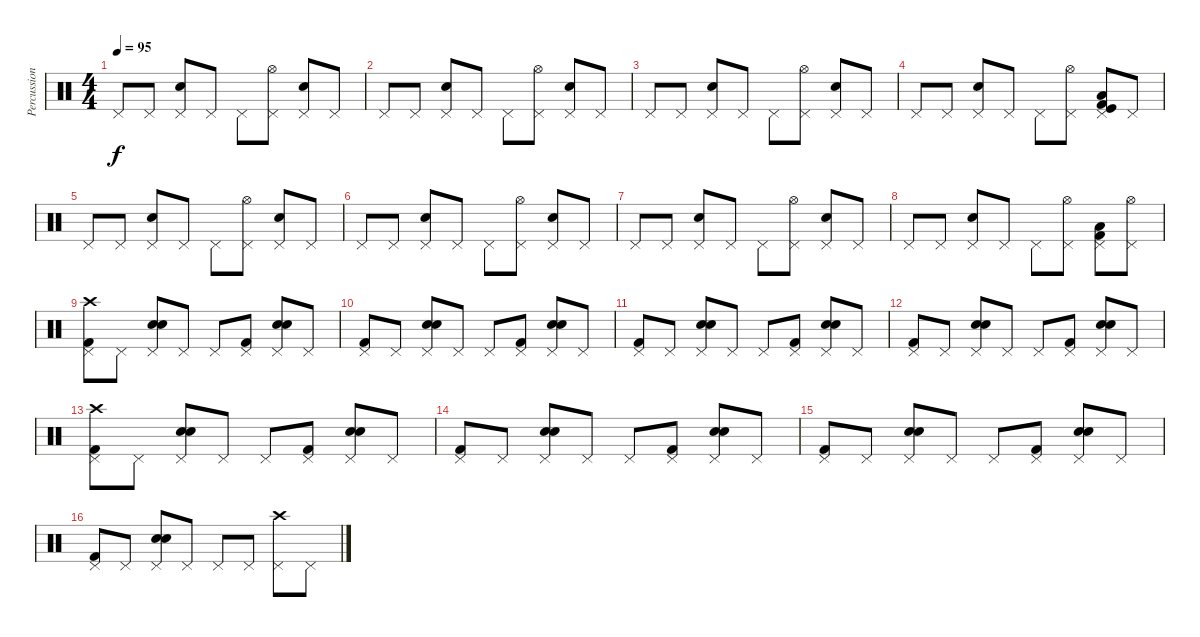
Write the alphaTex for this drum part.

\track ("Percussion (1)" "Percussion") {instrument percussion}
\staff {score}
\articulation defaults
\ts (4 4)
\tempo 95
\clef neutral
\ks c "Pedal Hi-Hat (hit)".8{dy f} "Pedal Hi-Hat (hit)".8
("Pedal Hi-Hat (hit)" "Electric Snare (hit)").8 "Pedal Hi-Hat (hit)".8 "Pedal Hi-Hat (hit)".8 ("Pedal Hi-Hat (hit)" "Hi-Hat (open)").8 ("Pedal Hi-Hat (hit)" "Electric Snare (hit)").8 "Pedal Hi-Hat (hit)".8 |
"Pedal Hi-Hat (hit)".8 "Pedal Hi-Hat (hit)".8 ("Pedal Hi-Hat (hit)" "Electric Snare (hit)").8 "Pedal Hi-Hat (hit)".8 "Pedal Hi-Hat (hit)".8 ("Pedal Hi-Hat (hit)" "Hi-Hat (open)").8 ("Pedal Hi-Hat (hit)" "Electric Snare (hit)").8 "Pedal Hi-Hat (hit)".8 |
"Pedal Hi-Hat (hit)".8 "Pedal Hi-Hat (hit)".8 ("Pedal Hi-Hat (hit)" "Electric Snare (hit)").8 "Pedal Hi-Hat (hit)".8 "Pedal Hi-Hat (hit)".8 ("Pedal Hi-Hat (hit)" "Hi-Hat (open)").8 ("Pedal Hi-Hat (hit)" "Electric Snare (hit)").8 "Pedal Hi-Hat (hit)".8 |
"Pedal Hi-Hat (hit)".8 "Pedal Hi-Hat (hit)".8 ("Pedal Hi-Hat (hit)" "Electric Snare (hit)").8 "Pedal Hi-Hat (hit)".8 "Pedal Hi-Hat (hit)".8 ("Pedal Hi-Hat (hit)" "Hi-Hat (open)").8 ("Pedal Hi-Hat (hit)" "Kick (hit) 2" "Kick (hit)" "Low Floor Tom (hit)").8 "Pedal Hi-Hat (hit)".8 |
"Pedal Hi-Hat (hit)".8 "Pedal Hi-Hat (hit)".8 ("Pedal Hi-Hat (hit)" "Electric Snare (hit)").8 "Pedal Hi-Hat (hit)".8 "Pedal Hi-Hat (hit)".8 ("Pedal Hi-Hat (hit)" "Hi-Hat (open)").8 ("Pedal Hi-Hat (hit)" "Electric Snare (hit)").8 "Pedal Hi-Hat (hit)".8 |
"Pedal Hi-Hat (hit)".8 "Pedal Hi-Hat (hit)".8 ("Pedal Hi-Hat (hit)" "Electric Snare (hit)").8 "Pedal Hi-Hat (hit)".8 "Pedal Hi-Hat (hit)".8 ("Pedal Hi-Hat (hit)" "Hi-Hat (open)").8 ("Pedal Hi-Hat (hit)" "Electric Snare (hit)").8 "Pedal Hi-Hat (hit)".8 |
"Pedal Hi-Hat (hit)".8 "Pedal Hi-Hat (hit)".8 ("Pedal Hi-Hat (hit)" "Electric Snare (hit)").8 "Pedal Hi-Hat (hit)".8 "Pedal Hi-Hat (hit)".8 ("Pedal Hi-Hat (hit)" "Hi-Hat (open)").8 ("Pedal Hi-Hat (hit)" "Electric Snare (hit)").8 "Pedal Hi-Hat (hit)".8 |
"Pedal Hi-Hat (hit)".8 "Pedal Hi-Hat (hit)".8 ("Pedal Hi-Hat (hit)" "Electric Snare (hit)").8 "Pedal Hi-Hat (hit)".8 "Pedal Hi-Hat (hit)".8 ("Pedal Hi-Hat (hit)" "Hi-Hat (open)").8 ("Pedal Hi-Hat (hit)" "Kick (hit) 2" "Low Floor Tom (hit)").8 ("Pedal Hi-Hat (hit)" "Hi-Hat (open)").8 |
("Pedal Hi-Hat (hit)" "Crash high (hit)" "Kick (hit) 2").8 "Pedal Hi-Hat (hit)".8 ("Pedal Hi-Hat (hit)" "Snare (hit) 2" "Electric Snare (hit)").8 "Pedal Hi-Hat (hit)".8 "Pedal Hi-Hat (hit)".8 ("Pedal Hi-Hat (hit)" "Kick (hit) 2").8 ("Pedal Hi-Hat (hit)" "Snare (hit) 2" "Electric Snare (hit)").8 "Pedal Hi-Hat (hit)".8 |
("Pedal Hi-Hat (hit)" "Kick (hit) 2").8 "Pedal Hi-Hat (hit)".8 ("Pedal Hi-Hat (hit)" "Snare (hit) 2" "Electric Snare (hit)").8 "Pedal Hi-Hat (hit)".8 "Pedal Hi-Hat (hit)".8 ("Pedal Hi-Hat (hit)" "Kick (hit) 2").8 ("Pedal Hi-Hat (hit)" "Snare (hit) 2" "Electric Snare (hit)").8 "Pedal Hi-Hat (hit)".8 |
("Pedal Hi-Hat (hit)" "Kick (hit) 2").8 "Pedal Hi-Hat (hit)".8 ("Pedal Hi-Hat (hit)" "Snare (hit) 2" "Electric Snare (hit)").8 "Pedal Hi-Hat (hit)".8 "Pedal Hi-Hat (hit)".8 ("Pedal Hi-Hat (hit)" "Kick (hit) 2").8 ("Pedal Hi-Hat (hit)" "Snare (hit) 2" "Electric Snare (hit)").8 "Pedal Hi-Hat (hit)".8 |
("Pedal Hi-Hat (hit)" "Kick (hit) 2").8 "Pedal Hi-Hat (hit)".8 ("Pedal Hi-Hat (hit)" "Snare (hit) 2" "Electric Snare (hit)").8 "Pedal Hi-Hat (hit)".8 "Pedal Hi-Hat (hit)".8 ("Pedal Hi-Hat (hit)" "Kick (hit) 2").8 ("Pedal Hi-Hat (hit)" "Snare (hit) 2" "Electric Snare (hit)").8 "Pedal Hi-Hat (hit)".8 |
("Pedal Hi-Hat (hit)" "Kick (hit) 2" "Crash high (hit)").8 "Pedal Hi-Hat (hit)".8 ("Pedal Hi-Hat (hit)" "Snare (hit) 2" "Electric Snare (hit)").8 "Pedal Hi-Hat (hit)".8 "Pedal Hi-Hat (hit)".8 ("Pedal Hi-Hat (hit)" "Kick (hit) 2").8 ("Pedal Hi-Hat (hit)" "Snare (hit) 2" "Electric Snare (hit)").8 "Pedal Hi-Hat (hit)".8 |
("Pedal Hi-Hat (hit)" "Kick (hit) 2").8 "Pedal Hi-Hat (hit)".8 ("Pedal Hi-Hat (hit)" "Snare (hit) 2" "Electric Snare (hit)").8 "Pedal Hi-Hat (hit)".8 "Pedal Hi-Hat (hit)".8 ("Pedal Hi-Hat (hit)" "Kick (hit) 2").8 ("Pedal Hi-Hat (hit)" "Snare (hit) 2" "Electric Snare (hit)").8 "Pedal Hi-Hat (hit)".8 |
("Pedal Hi-Hat (hit)" "Kick (hit) 2").8 "Pedal Hi-Hat (hit)".8 ("Pedal Hi-Hat (hit)" "Snare (hit) 2" "Electric Snare (hit)").8 "Pedal Hi-Hat (hit)".8 "Pedal Hi-Hat (hit)".8 ("Pedal Hi-Hat (hit)" "Kick (hit) 2").8 ("Pedal Hi-Hat (hit)" "Snare (hit) 2" "Electric Snare (hit)").8 "Pedal Hi-Hat (hit)".8 |
("Pedal Hi-Hat (hit)" "Kick (hit) 2").8 "Pedal Hi-Hat (hit)".8 ("Pedal Hi-Hat (hit)" "Snare (hit) 2" "Electric Snare (hit)").8 "Pedal Hi-Hat (hit)".8 "Pedal Hi-Hat (hit)".8 "Pedal Hi-Hat (hit)".8 ("Pedal Hi-Hat (hit)" "Crash high (hit)").8 "Pedal Hi-Hat (hit)".8
